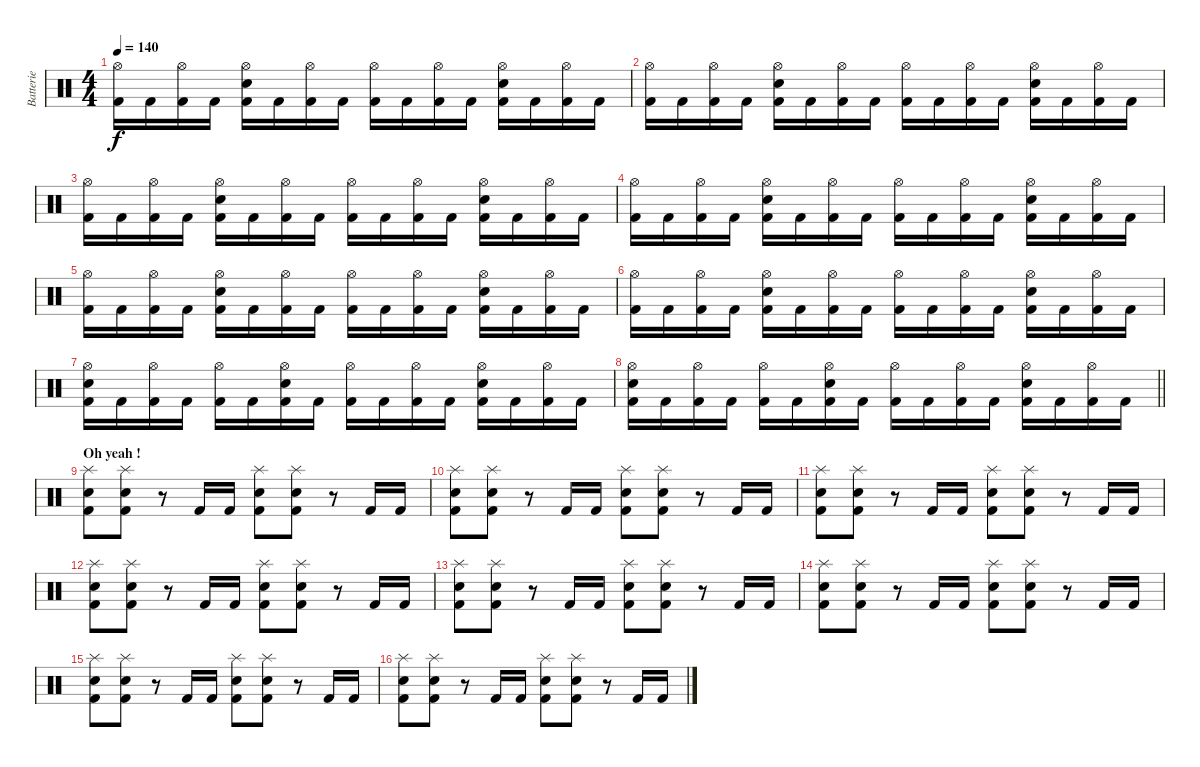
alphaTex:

\track ("Batterie" "Batterie") {instrument percussion}
\staff {score}
\articulation defaults
\ts (4 4)
\tempo 140
\clef neutral
\ks c
("Hi-Hat (open)" "Kick (hit) 2").16{dy f} "Kick (hit) 2".16 ("Hi-Hat (open)" "Kick (hit) 2").16 "Kick (hit) 2".16 ("Hi-Hat (open)" "Electric Snare (hit)" "Kick (hit) 2").16 "Kick (hit) 2".16 ("Hi-Hat (open)" "Kick (hit) 2").16 "Kick (hit) 2".16 ("Hi-Hat (open)" "Kick (hit) 2").16 "Kick (hit) 2".16 ("Hi-Hat (open)" "Kick (hit) 2").16 "Kick (hit) 2".16 ("Hi-Hat (open)" "Electric Snare (hit)" "Kick (hit) 2").16 "Kick (hit) 2".16 ("Hi-Hat (open)" "Kick (hit) 2").16 "Kick (hit) 2".16 |
("Hi-Hat (open)" "Kick (hit) 2").16 "Kick (hit) 2".16 ("Hi-Hat (open)" "Kick (hit) 2").16 "Kick (hit) 2".16 ("Hi-Hat (open)" "Electric Snare (hit)" "Kick (hit) 2").16 "Kick (hit) 2".16 ("Hi-Hat (open)" "Kick (hit) 2").16 "Kick (hit) 2".16 ("Hi-Hat (open)" "Kick (hit) 2").16 "Kick (hit) 2".16 ("Hi-Hat (open)" "Kick (hit) 2").16 "Kick (hit) 2".16 ("Hi-Hat (open)" "Electric Snare (hit)" "Kick (hit) 2").16 "Kick (hit) 2".16 ("Hi-Hat (open)" "Kick (hit) 2").16 "Kick (hit) 2".16 |
("Hi-Hat (open)" "Kick (hit) 2").16 "Kick (hit) 2".16 ("Hi-Hat (open)" "Kick (hit) 2").16 "Kick (hit) 2".16 ("Hi-Hat (open)" "Electric Snare (hit)" "Kick (hit) 2").16 "Kick (hit) 2".16 ("Hi-Hat (open)" "Kick (hit) 2").16 "Kick (hit) 2".16 ("Hi-Hat (open)" "Kick (hit) 2").16 "Kick (hit) 2".16 ("Hi-Hat (open)" "Kick (hit) 2").16 "Kick (hit) 2".16 ("Hi-Hat (open)" "Electric Snare (hit)" "Kick (hit) 2").16 "Kick (hit) 2".16 ("Hi-Hat (open)" "Kick (hit) 2").16 "Kick (hit) 2".16 |
("Hi-Hat (open)" "Kick (hit) 2").16 "Kick (hit) 2".16 ("Hi-Hat (open)" "Kick (hit) 2").16 "Kick (hit) 2".16 ("Hi-Hat (open)" "Electric Snare (hit)" "Kick (hit) 2").16 "Kick (hit) 2".16 ("Hi-Hat (open)" "Kick (hit) 2").16 "Kick (hit) 2".16 ("Hi-Hat (open)" "Kick (hit) 2").16 "Kick (hit) 2".16 ("Hi-Hat (open)" "Kick (hit) 2").16 "Kick (hit) 2".16 ("Hi-Hat (open)" "Electric Snare (hit)" "Kick (hit) 2").16 "Kick (hit) 2".16 ("Hi-Hat (open)" "Kick (hit) 2").16 "Kick (hit) 2".16 |
("Hi-Hat (open)" "Kick (hit) 2").16 "Kick (hit) 2".16 ("Hi-Hat (open)" "Kick (hit) 2").16 "Kick (hit) 2".16 ("Hi-Hat (open)" "Electric Snare (hit)" "Kick (hit) 2").16 "Kick (hit) 2".16 ("Hi-Hat (open)" "Kick (hit) 2").16 "Kick (hit) 2".16 ("Hi-Hat (open)" "Kick (hit) 2").16 "Kick (hit) 2".16 ("Hi-Hat (open)" "Kick (hit) 2").16 "Kick (hit) 2".16 ("Hi-Hat (open)" "Electric Snare (hit)" "Kick (hit) 2").16 "Kick (hit) 2".16 ("Hi-Hat (open)" "Kick (hit) 2").16 "Kick (hit) 2".16 |
("Hi-Hat (open)" "Kick (hit) 2").16 "Kick (hit) 2".16 ("Hi-Hat (open)" "Kick (hit) 2").16 "Kick (hit) 2".16 ("Hi-Hat (open)" "Electric Snare (hit)" "Kick (hit) 2").16 "Kick (hit) 2".16 ("Hi-Hat (open)" "Kick (hit) 2").16 "Kick (hit) 2".16 ("Hi-Hat (open)" "Kick (hit) 2").16 "Kick (hit) 2".16 ("Hi-Hat (open)" "Kick (hit) 2").16 "Kick (hit) 2".16 ("Hi-Hat (open)" "Electric Snare (hit)" "Kick (hit) 2").16 "Kick (hit) 2".16 ("Hi-Hat (open)" "Kick (hit) 2").16 "Kick (hit) 2".16 |
("Hi-Hat (open)" "Electric Snare (hit)" "Kick (hit) 2").16 "Kick (hit) 2".16 ("Hi-Hat (open)" "Kick (hit) 2").16 "Kick (hit) 2".16 ("Hi-Hat (open)" "Kick (hit) 2").16 "Kick (hit) 2".16 ("Hi-Hat (open)" "Electric Snare (hit)" "Kick (hit) 2").16 "Kick (hit) 2".16 ("Hi-Hat (open)" "Kick (hit) 2").16 "Kick (hit) 2".16 ("Hi-Hat (open)" "Kick (hit) 2").16 "Kick (hit) 2".16 ("Hi-Hat (open)" "Electric Snare (hit)" "Kick (hit) 2").16 "Kick (hit) 2".16 ("Hi-Hat (open)" "Kick (hit) 2").16 "Kick (hit) 2".16 |
\barLineRight lightlight
("Hi-Hat (open)" "Electric Snare (hit)" "Kick (hit) 2").16 "Kick (hit) 2".16 ("Hi-Hat (open)" "Kick (hit) 2").16 "Kick (hit) 2".16 ("Hi-Hat (open)" "Kick (hit) 2").16 "Kick (hit) 2".16 ("Hi-Hat (open)" "Electric Snare (hit)" "Kick (hit) 2").16 "Kick (hit) 2".16 ("Hi-Hat (open)" "Kick (hit) 2").16 "Kick (hit) 2".16 ("Hi-Hat (open)" "Kick (hit) 2").16 "Kick (hit) 2".16 ("Hi-Hat (open)" "Electric Snare (hit)" "Kick (hit) 2").16 "Kick (hit) 2".16 ("Hi-Hat (open)" "Kick (hit) 2").16 "Kick (hit) 2".16 |
\section ("" "Oh yeah !")
("Splash (hit)" "Electric Snare (hit)" "Kick (hit) 2").8 ("Splash (hit)" "Electric Snare (hit)" "Kick (hit) 2").8 r.8 "Kick (hit) 2".16 "Kick (hit) 2".16 ("Splash (hit)" "Electric Snare (hit)" "Kick (hit) 2").8 ("Splash (hit)" "Electric Snare (hit)" "Kick (hit) 2").8 r.8 "Kick (hit) 2".16 "Kick (hit) 2".16 |
("Splash (hit)" "Electric Snare (hit)" "Kick (hit) 2").8 ("Splash (hit)" "Electric Snare (hit)" "Kick (hit) 2").8 r.8 "Kick (hit) 2".16 "Kick (hit) 2".16 ("Splash (hit)" "Electric Snare (hit)" "Kick (hit) 2").8 ("Splash (hit)" "Electric Snare (hit)" "Kick (hit) 2").8 r.8 "Kick (hit) 2".16 "Kick (hit) 2".16 |
("Splash (hit)" "Electric Snare (hit)" "Kick (hit) 2").8 ("Splash (hit)" "Electric Snare (hit)" "Kick (hit) 2").8 r.8 "Kick (hit) 2".16 "Kick (hit) 2".16 ("Splash (hit)" "Electric Snare (hit)" "Kick (hit) 2").8 ("Splash (hit)" "Electric Snare (hit)" "Kick (hit) 2").8 r.8 "Kick (hit) 2".16 "Kick (hit) 2".16 |
("Splash (hit)" "Electric Snare (hit)" "Kick (hit) 2").8 ("Splash (hit)" "Electric Snare (hit)" "Kick (hit) 2").8 r.8 "Kick (hit) 2".16 "Kick (hit) 2".16 ("Splash (hit)" "Electric Snare (hit)" "Kick (hit) 2").8 ("Splash (hit)" "Electric Snare (hit)" "Kick (hit) 2").8 r.8 "Kick (hit) 2".16 "Kick (hit) 2".16 |
("Splash (hit)" "Electric Snare (hit)" "Kick (hit) 2").8 ("Splash (hit)" "Electric Snare (hit)" "Kick (hit) 2").8 r.8 "Kick (hit) 2".16 "Kick (hit) 2".16 ("Splash (hit)" "Electric Snare (hit)" "Kick (hit) 2").8 ("Splash (hit)" "Electric Snare (hit)" "Kick (hit) 2").8 r.8 "Kick (hit) 2".16 "Kick (hit) 2".16 |
("Splash (hit)" "Electric Snare (hit)" "Kick (hit) 2").8 ("Splash (hit)" "Electric Snare (hit)" "Kick (hit) 2").8 r.8 "Kick (hit) 2".16 "Kick (hit) 2".16 ("Splash (hit)" "Electric Snare (hit)" "Kick (hit) 2").8 ("Splash (hit)" "Electric Snare (hit)" "Kick (hit) 2").8 r.8 "Kick (hit) 2".16 "Kick (hit) 2".16 |
("Splash (hit)" "Electric Snare (hit)" "Kick (hit) 2").8 ("Splash (hit)" "Electric Snare (hit)" "Kick (hit) 2").8 r.8 "Kick (hit) 2".16 "Kick (hit) 2".16 ("Splash (hit)" "Electric Snare (hit)" "Kick (hit) 2").8 ("Splash (hit)" "Electric Snare (hit)" "Kick (hit) 2").8 r.8 "Kick (hit) 2".16 "Kick (hit) 2".16 |
("Splash (hit)" "Electric Snare (hit)" "Kick (hit) 2").8 ("Splash (hit)" "Electric Snare (hit)" "Kick (hit) 2").8 r.8 "Kick (hit) 2".16 "Kick (hit) 2".16 ("Splash (hit)" "Electric Snare (hit)" "Kick (hit) 2").8 ("Splash (hit)" "Electric Snare (hit)" "Kick (hit) 2").8 r.8 "Kick (hit) 2".16 "Kick (hit) 2".16
